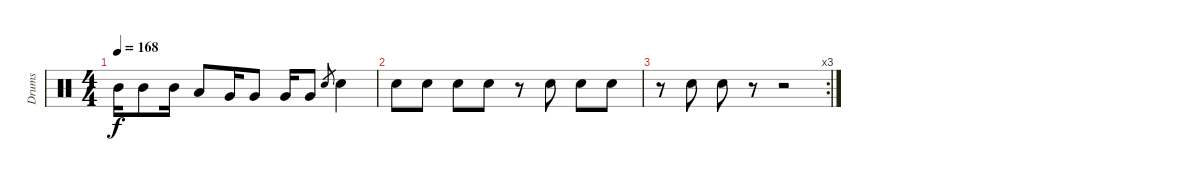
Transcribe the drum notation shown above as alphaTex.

\track ("Drums" "Drums") {instrument percussion}
\staff {score}
\articulation defaults
\ts (4 4)
\tempo 168
\clef neutral
\ks c "Mid Tom (hit)".16{dy f} "Mid Tom (hit)".8 "Mid Tom (hit)".16 "Low Tom (hit)".8 "Very Low Tom (hit)".16 "Very Low Tom (hit)".8 "Very Low Tom (hit)".16 "Very Low Tom (hit)".8 "Electric Snare (hit)".8{gr} "Electric Snare (hit)".4
|
"Electric Snare (hit)".8 "Electric Snare (hit)".8 "Electric Snare (hit)".8 "Electric Snare (hit)".8 r.8 "Electric Snare (hit)".8 "Electric Snare (hit)".8 "Electric Snare (hit)".8 |
\rc 3
r.8 "Electric Snare (hit)".8 "Electric Snare (hit)".8 r.8 r.2
